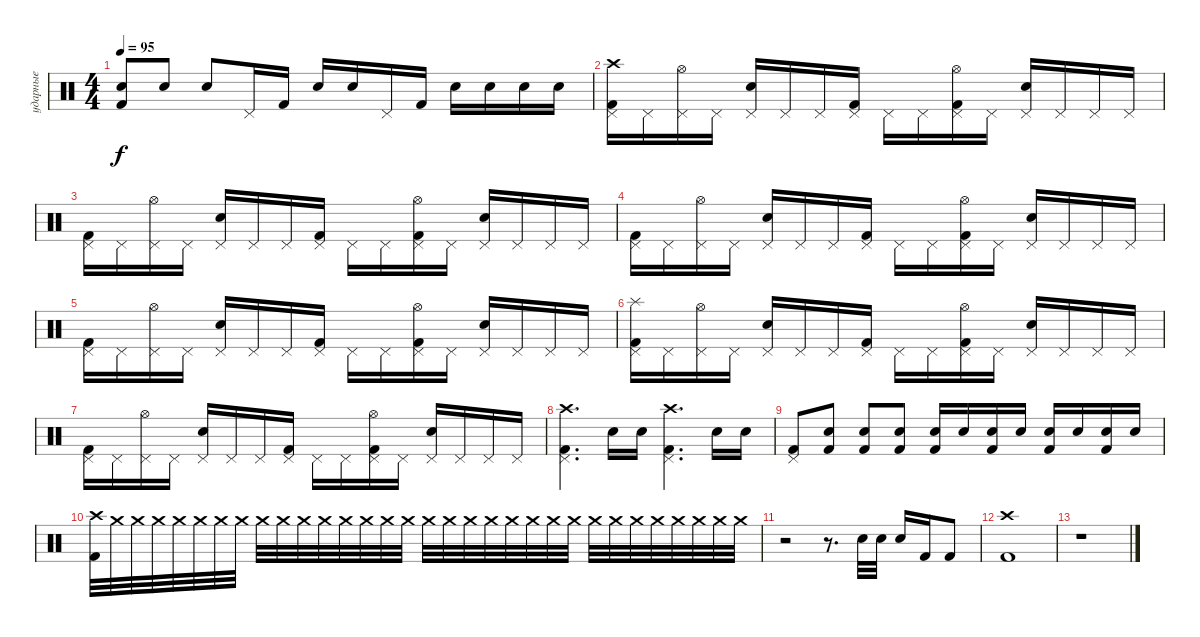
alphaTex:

\track ("ударные" "ударные") {instrument percussion}
\staff {score}
\articulation defaults
\ts (4 4)
\tempo 95
\clef neutral
\ks c
("Kick (hit) 2"{t} "Snare (hit)"{t}).8{dy f} "Snare (hit) 2".8 "Snare (hit) 2".8 "Pedal Hi-Hat (hit)".16 "Kick (hit) 2".16 "Snare (hit) 2".16 "Snare (hit) 2".16 "Pedal Hi-Hat (hit)".16 "Kick (hit) 2".16 "Snare (hit) 2".16 "Snare (hit) 2".16 "Snare (hit) 2".16 "Snare (hit) 2".16 |
("Kick (hit) 2" "Crash high (hit)" "Pedal Hi-Hat (hit)").16 "Pedal Hi-Hat (hit)".16 ("Pedal Hi-Hat (hit)" "Hi-Hat (open)").16 "Pedal Hi-Hat (hit)".16 ("Snare (hit) 2" "Pedal Hi-Hat (hit)").16 "Pedal Hi-Hat (hit)".16 "Pedal Hi-Hat (hit)".16 ("Kick (hit) 2" "Pedal Hi-Hat (hit)").16 "Pedal Hi-Hat (hit)".16 "Pedal Hi-Hat (hit)".16 ("Kick (hit) 2" "Pedal Hi-Hat (hit)" "Hi-Hat (open)").16 "Pedal Hi-Hat (hit)".16 ("Snare (hit) 2" "Pedal Hi-Hat (hit)").16 "Pedal Hi-Hat (hit)".16 "Pedal Hi-Hat (hit)".16 "Pedal Hi-Hat (hit)".16 |
("Kick (hit) 2" "Pedal Hi-Hat (hit)").16 "Pedal Hi-Hat (hit)".16 ("Pedal Hi-Hat (hit)" "Hi-Hat (open)").16 "Pedal Hi-Hat (hit)".16 ("Snare (hit) 2" "Pedal Hi-Hat (hit)").16 "Pedal Hi-Hat (hit)".16 "Pedal Hi-Hat (hit)".16 ("Kick (hit) 2" "Pedal Hi-Hat (hit)").16 "Pedal Hi-Hat (hit)".16 "Pedal Hi-Hat (hit)".16 ("Kick (hit) 2" "Pedal Hi-Hat (hit)" "Hi-Hat (open)").16 "Pedal Hi-Hat (hit)".16 ("Snare (hit) 2" "Pedal Hi-Hat (hit)").16 "Pedal Hi-Hat (hit)".16 "Pedal Hi-Hat (hit)".16 "Pedal Hi-Hat (hit)".16 |
("Kick (hit) 2" "Pedal Hi-Hat (hit)").16 "Pedal Hi-Hat (hit)".16 ("Pedal Hi-Hat (hit)" "Hi-Hat (open)").16 "Pedal Hi-Hat (hit)".16 ("Snare (hit) 2" "Pedal Hi-Hat (hit)").16 "Pedal Hi-Hat (hit)".16 "Pedal Hi-Hat (hit)".16 ("Kick (hit) 2" "Pedal Hi-Hat (hit)").16 "Pedal Hi-Hat (hit)".16 "Pedal Hi-Hat (hit)".16 ("Kick (hit) 2" "Pedal Hi-Hat (hit)" "Hi-Hat (open)").16 "Pedal Hi-Hat (hit)".16 ("Snare (hit) 2" "Pedal Hi-Hat (hit)").16 "Pedal Hi-Hat (hit)".16 "Pedal Hi-Hat (hit)".16 "Pedal Hi-Hat (hit)".16 |
("Kick (hit) 2" "Pedal Hi-Hat (hit)").16 "Pedal Hi-Hat (hit)".16 ("Pedal Hi-Hat (hit)" "Hi-Hat (open)").16 "Pedal Hi-Hat (hit)".16 ("Snare (hit) 2" "Pedal Hi-Hat (hit)").16 "Pedal Hi-Hat (hit)".16 "Pedal Hi-Hat (hit)".16 ("Kick (hit) 2" "Pedal Hi-Hat (hit)").16 "Pedal Hi-Hat (hit)".16 "Pedal Hi-Hat (hit)".16 ("Kick (hit) 2" "Pedal Hi-Hat (hit)" "Hi-Hat (open)").16 "Pedal Hi-Hat (hit)".16 ("Snare (hit) 2" "Pedal Hi-Hat (hit)").16 "Pedal Hi-Hat (hit)".16 "Pedal Hi-Hat (hit)".16 "Pedal Hi-Hat (hit)".16 |
("Kick (hit) 2" "Splash (hit)" "Pedal Hi-Hat (hit)").16 "Pedal Hi-Hat (hit)".16 ("Pedal Hi-Hat (hit)" "Hi-Hat (open)").16 "Pedal Hi-Hat (hit)".16 ("Snare (hit) 2" "Pedal Hi-Hat (hit)").16 "Pedal Hi-Hat (hit)".16 "Pedal Hi-Hat (hit)".16 ("Kick (hit) 2" "Pedal Hi-Hat (hit)").16 "Pedal Hi-Hat (hit)".16 "Pedal Hi-Hat (hit)".16 ("Kick (hit) 2" "Pedal Hi-Hat (hit)" "Hi-Hat (open)").16 "Pedal Hi-Hat (hit)".16 ("Snare (hit) 2" "Pedal Hi-Hat (hit)").16 "Pedal Hi-Hat (hit)".16 "Pedal Hi-Hat (hit)".16 "Pedal Hi-Hat (hit)".16 |
("Kick (hit) 2" "Pedal Hi-Hat (hit)").16 "Pedal Hi-Hat (hit)".16 ("Pedal Hi-Hat (hit)" "Hi-Hat (open)").16 "Pedal Hi-Hat (hit)".16 ("Snare (hit) 2" "Pedal Hi-Hat (hit)").16 "Pedal Hi-Hat (hit)".16 "Pedal Hi-Hat (hit)".16 ("Kick (hit) 2" "Pedal Hi-Hat (hit)").16 "Pedal Hi-Hat (hit)".16 "Pedal Hi-Hat (hit)".16 ("Kick (hit) 2" "Pedal Hi-Hat (hit)" "Hi-Hat (open)").16 "Pedal Hi-Hat (hit)".16 ("Snare (hit) 2" "Pedal Hi-Hat (hit)").16 "Pedal Hi-Hat (hit)".16 "Pedal Hi-Hat (hit)".16 "Pedal Hi-Hat (hit)".16 |
("Kick (hit) 2" "Pedal Hi-Hat (hit)" "Crash high (hit)").4{d} "Snare (hit) 2".16 "Snare (hit) 2".16 ("Kick (hit) 2" "Pedal Hi-Hat (hit)" "Crash high (hit)").4{d} "Snare (hit) 2".16 "Snare (hit) 2".16 |
("Kick (hit) 2" "Pedal Hi-Hat (hit)").8 ("Kick (hit) 2" "Snare (hit) 2").8 ("Kick (hit) 2" "Snare (hit) 2").8 ("Kick (hit) 2" "Snare (hit) 2").8 ("Kick (hit) 2" "Snare (hit) 2").16 "Snare (hit) 2".16 ("Kick (hit) 2" "Snare (hit) 2").16 "Snare (hit) 2".16 ("Kick (hit) 2" "Snare (hit) 2").16 "Snare (hit) 2".16 ("Kick (hit) 2" "Snare (hit) 2").16 "Snare (hit) 2".16 |
("Kick (hit) 2" "Crash high (hit)").32 "Crash medium (hit)".32{volume 16} "Crash medium (hit)".32 "Crash medium (hit)".32 "Crash medium (hit)".32 "Crash medium (hit)".32 "Crash medium (hit)".32 "Crash medium (hit)".32 "Crash medium (hit)".32 "Crash medium (hit)".32 "Crash medium (hit)".32 "Crash medium (hit)".32 "Crash medium (hit)".32 "Crash medium (hit)".32 "Crash medium (hit)".32 "Crash medium (hit)".32 "Crash medium (hit)".32 "Crash medium (hit)".32 "Crash medium (hit)".32 "Crash medium (hit)".32 "Crash medium (hit)".32 "Crash medium (hit)".32 "Crash medium (hit)".32 "Crash medium (hit)".32 "Crash medium (hit)".32 "Crash medium (hit)".32 "Crash medium (hit)".32 "Crash medium (hit)".32 "Crash medium (hit)".32 "Crash medium (hit)".32 "Crash medium (hit)".32 "Crash medium (hit)".32 |
r.2 r.8{d} "Snare (hit) 2".32 "Snare (hit) 2".32 "Snare (hit) 2".16 "Kick (hit) 2".16 "Kick (hit) 2".8 |
("Kick (hit) 2" "Crash high (hit)").1 |
r.1
